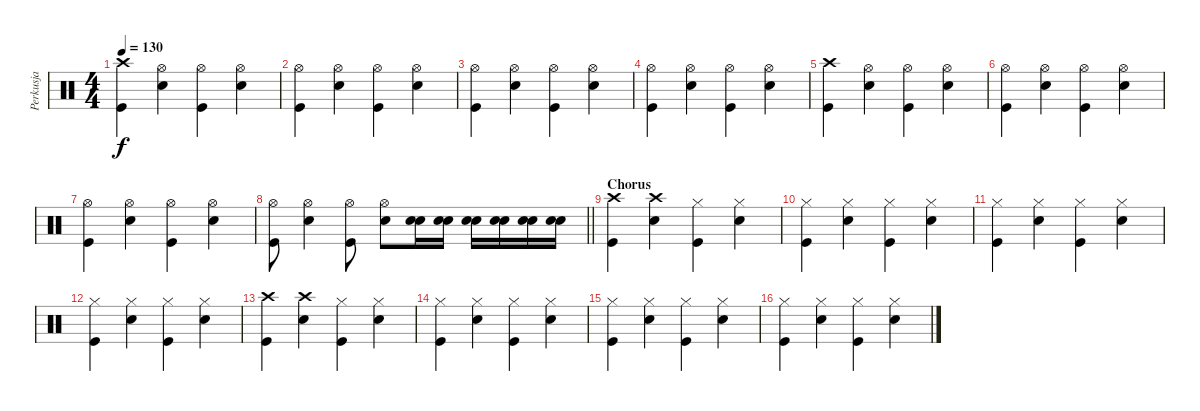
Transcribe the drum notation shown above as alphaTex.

\track ("Perkusja" "Perkusja") {instrument percussion}
\staff {score}
\articulation defaults
\ts (4 4)
\tempo 130
\clef neutral
\ks c
("Crash high (hit)" "Kick (hit)").4{dy f} ("Hi-Hat (open)" "Snare (hit) 2").4 ("Hi-Hat (open)" "Kick (hit)").4 ("Hi-Hat (open)" "Snare (hit) 2").4 |
("Hi-Hat (open)" "Kick (hit)").4 ("Hi-Hat (open)" "Snare (hit) 2").4 ("Hi-Hat (open)" "Kick (hit)").4 ("Hi-Hat (open)" "Snare (hit) 2").4 |
("Hi-Hat (open)" "Kick (hit)").4 ("Hi-Hat (open)" "Snare (hit) 2").4 ("Hi-Hat (open)" "Kick (hit)").4 ("Hi-Hat (open)" "Snare (hit) 2").4 |
("Hi-Hat (open)" "Kick (hit)").4 ("Hi-Hat (open)" "Snare (hit) 2").4 ("Hi-Hat (open)" "Kick (hit)").4 ("Hi-Hat (open)" "Snare (hit) 2").4 |
("Crash high (hit)" "Kick (hit)").4 ("Hi-Hat (open)" "Snare (hit) 2").4 ("Hi-Hat (open)" "Kick (hit)").4 ("Hi-Hat (open)" "Snare (hit) 2").4 |
("Hi-Hat (open)" "Kick (hit)").4 ("Hi-Hat (open)" "Snare (hit) 2").4 ("Hi-Hat (open)" "Kick (hit)").4 ("Hi-Hat (open)" "Snare (hit) 2").4 |
("Hi-Hat (open)" "Kick (hit)").4 ("Hi-Hat (open)" "Snare (hit) 2").4 ("Hi-Hat (open)" "Kick (hit)").4 ("Hi-Hat (open)" "Snare (hit) 2").4 |
\barLineRight lightlight
("Hi-Hat (open)" "Kick (hit)").8 ("Hi-Hat (open)" "Snare (hit) 2").4 ("Hi-Hat (open)" "Kick (hit)").8 ("Hi-Hat (open)" "Snare (hit) 2").8 ("Electric Snare (hit)" "Snare (hit) 2").16 ("Electric Snare (hit)" "Snare (hit) 2").16 ("Electric Snare (hit)" "Snare (hit) 2").16 ("Electric Snare (hit)" "Snare (hit) 2").16 ("Electric Snare (hit)" "Snare (hit) 2").16 ("Electric Snare (hit)" "Snare (hit) 2").16 |
\section ("" "Chorus")
("Crash high (hit)" "Kick (hit)").4 ("Crash high (hit)" "Snare (hit) 2").4 ("Hi-Hat (closed)" "Kick (hit)").4 ("Hi-Hat (closed)" "Snare (hit) 2").4 |
("Hi-Hat (closed)" "Kick (hit)").4 ("Hi-Hat (closed)" "Snare (hit) 2").4 ("Hi-Hat (closed)" "Kick (hit)").4 ("Hi-Hat (closed)" "Snare (hit) 2").4 |
("Hi-Hat (closed)" "Kick (hit)").4 ("Hi-Hat (closed)" "Snare (hit) 2").4 ("Hi-Hat (closed)" "Kick (hit)").4 ("Hi-Hat (closed)" "Snare (hit) 2").4 |
("Hi-Hat (closed)" "Kick (hit)").4 ("Hi-Hat (closed)" "Snare (hit) 2").4 ("Hi-Hat (closed)" "Kick (hit)").4 ("Hi-Hat (closed)" "Snare (hit) 2").4 |
("Crash high (hit)" "Kick (hit)").4 ("Crash high (hit)" "Snare (hit) 2").4 ("Hi-Hat (closed)" "Kick (hit)").4 ("Hi-Hat (closed)" "Snare (hit) 2").4 |
("Hi-Hat (closed)" "Kick (hit)").4 ("Hi-Hat (closed)" "Snare (hit) 2").4 ("Hi-Hat (closed)" "Kick (hit)").4 ("Hi-Hat (closed)" "Snare (hit) 2").4 |
("Hi-Hat (closed)" "Kick (hit)").4 ("Hi-Hat (closed)" "Snare (hit) 2").4 ("Hi-Hat (closed)" "Kick (hit)").4 ("Hi-Hat (closed)" "Snare (hit) 2").4 |
("Hi-Hat (closed)" "Kick (hit)").4 ("Hi-Hat (closed)" "Snare (hit) 2").4 ("Hi-Hat (closed)" "Kick (hit)").4 ("Hi-Hat (closed)" "Snare (hit) 2").4
